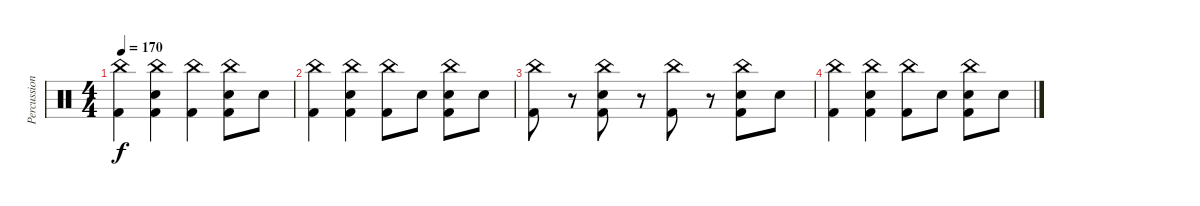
\track ("Percussion" "Percussion") {instrument percussion}
\staff {score}
\articulation defaults
\ts (4 4)
\tempo 170
\clef neutral
\ks c
("China (hit)" "Kick (hit) 2").4{dy f} ("China (hit)" "Electric Snare (hit)" "Kick (hit) 2").4 ("China (hit)" "Kick (hit) 2").4 ("China (hit)" "Electric Snare (hit)" "Kick (hit) 2").8 "Electric Snare (hit)".8 |
("China (hit)" "Kick (hit) 2").4 ("China (hit)" "Electric Snare (hit)" "Kick (hit) 2").4 ("China (hit)" "Kick (hit) 2").8 "Electric Snare (hit)".8 ("China (hit)" "Electric Snare (hit)" "Kick (hit) 2").8 "Electric Snare (hit)".8 |
("China (hit)" "Kick (hit) 2").8 r.8 ("China (hit)" "Electric Snare (hit)" "Kick (hit) 2").8 r.8 ("China (hit)" "Kick (hit) 2").8 r.8 ("China (hit)" "Electric Snare (hit)" "Kick (hit) 2").8 "Electric Snare (hit)".8 |
("China (hit)" "Kick (hit) 2").4 ("China (hit)" "Electric Snare (hit)" "Kick (hit) 2").4 ("China (hit)" "Kick (hit) 2").8 "Electric Snare (hit)".8 ("China (hit)" "Electric Snare (hit)" "Kick (hit) 2").8 "Electric Snare (hit)".8
